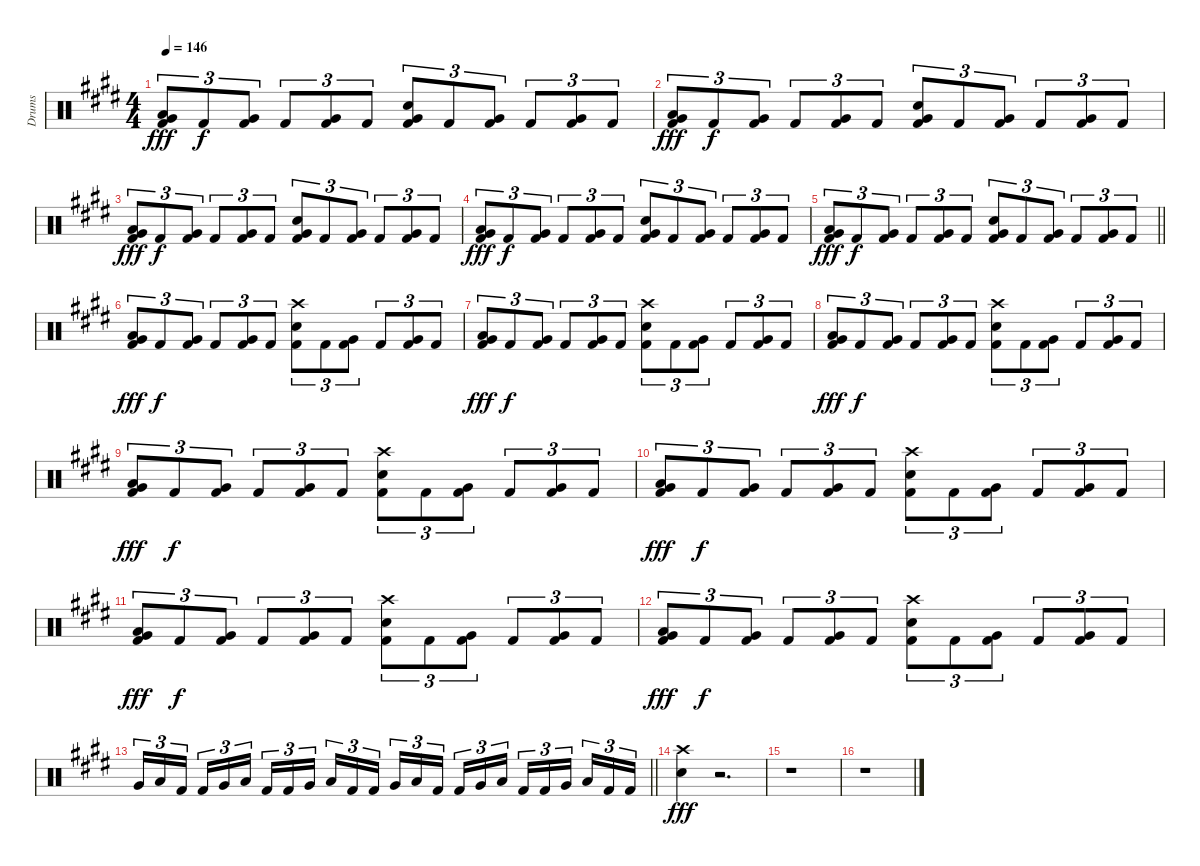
\track ("Drums" "Drums") {instrument percussion}
\staff {score}
\articulation defaults
\ts (4 4)
\tempo 146
\clef neutral
\ks c#minor
("Low Tom (hit)" "Very Low Tom (hit)" "Kick (hit) 2").8{tu (3 2) dy fff} "Kick (hit) 2".8{tu (3 2) dy f} ("Very Low Tom (hit)" "Kick (hit) 2").8{tu (3 2)} "Kick (hit) 2".8{tu (3 2)} ("Very Low Tom (hit)" "Kick (hit) 2").8{tu (3 2)} "Kick (hit) 2".8{tu (3 2)} ("Snare (hit) 2" "Very Low Tom (hit)" "Kick (hit) 2").8{tu (3 2)} "Kick (hit) 2".8{tu (3 2)} ("Very Low Tom (hit)" "Kick (hit) 2").8{tu (3 2)} "Kick (hit) 2".8{tu (3 2)} ("Very Low Tom (hit)" "Kick (hit) 2").8{tu (3 2)} "Kick (hit) 2".8{tu (3 2)} |
("Low Tom (hit)" "Very Low Tom (hit)" "Kick (hit) 2").8{tu (3 2) dy fff} "Kick (hit) 2".8{tu (3 2) dy f} ("Very Low Tom (hit)" "Kick (hit) 2").8{tu (3 2)} "Kick (hit) 2".8{tu (3 2)} ("Very Low Tom (hit)" "Kick (hit) 2").8{tu (3 2)} "Kick (hit) 2".8{tu (3 2)} ("Snare (hit) 2" "Very Low Tom (hit)" "Kick (hit) 2").8{tu (3 2)} "Kick (hit) 2".8{tu (3 2)} ("Very Low Tom (hit)" "Kick (hit) 2").8{tu (3 2)} "Kick (hit) 2".8{tu (3 2)} ("Very Low Tom (hit)" "Kick (hit) 2").8{tu (3 2)} "Kick (hit) 2".8{tu (3 2)} |
("Low Tom (hit)" "Very Low Tom (hit)" "Kick (hit) 2").8{tu (3 2) dy fff} "Kick (hit) 2".8{tu (3 2) dy f} ("Very Low Tom (hit)" "Kick (hit) 2").8{tu (3 2)} "Kick (hit) 2".8{tu (3 2)} ("Very Low Tom (hit)" "Kick (hit) 2").8{tu (3 2)} "Kick (hit) 2".8{tu (3 2)} ("Snare (hit) 2" "Very Low Tom (hit)" "Kick (hit) 2").8{tu (3 2)} "Kick (hit) 2".8{tu (3 2)} ("Very Low Tom (hit)" "Kick (hit) 2").8{tu (3 2)} "Kick (hit) 2".8{tu (3 2)} ("Very Low Tom (hit)" "Kick (hit) 2").8{tu (3 2)} "Kick (hit) 2".8{tu (3 2)} |
("Low Tom (hit)" "Very Low Tom (hit)" "Kick (hit) 2").8{tu (3 2) dy fff} "Kick (hit) 2".8{tu (3 2) dy f} ("Very Low Tom (hit)" "Kick (hit) 2").8{tu (3 2)} "Kick (hit) 2".8{tu (3 2)} ("Very Low Tom (hit)" "Kick (hit) 2").8{tu (3 2)} "Kick (hit) 2".8{tu (3 2)} ("Snare (hit) 2" "Very Low Tom (hit)" "Kick (hit) 2").8{tu (3 2)} "Kick (hit) 2".8{tu (3 2)} ("Very Low Tom (hit)" "Kick (hit) 2").8{tu (3 2)} "Kick (hit) 2".8{tu (3 2)} ("Very Low Tom (hit)" "Kick (hit) 2").8{tu (3 2)} "Kick (hit) 2".8{tu (3 2)} |
\barLineRight lightlight
("Low Tom (hit)" "Very Low Tom (hit)" "Kick (hit) 2").8{tu (3 2) dy fff} "Kick (hit) 2".8{tu (3 2) dy f} ("Very Low Tom (hit)" "Kick (hit) 2").8{tu (3 2)} "Kick (hit) 2".8{tu (3 2)} ("Very Low Tom (hit)" "Kick (hit) 2").8{tu (3 2)} "Kick (hit) 2".8{tu (3 2)} ("Snare (hit) 2" "Very Low Tom (hit)" "Kick (hit) 2").8{tu (3 2)} "Kick (hit) 2".8{tu (3 2)} ("Very Low Tom (hit)" "Kick (hit) 2").8{tu (3 2)} "Kick (hit) 2".8{tu (3 2)} ("Very Low Tom (hit)" "Kick (hit) 2").8{tu (3 2)} "Kick (hit) 2".8{tu (3 2)} |
("Low Tom (hit)" "Very Low Tom (hit)" "Kick (hit) 2").8{tu (3 2) dy fff} "Kick (hit) 2".8{tu (3 2) dy f} ("Very Low Tom (hit)" "Kick (hit) 2").8{tu (3 2)} "Kick (hit) 2".8{tu (3 2)} ("Very Low Tom (hit)" "Kick (hit) 2").8{tu (3 2)} "Kick (hit) 2".8{tu (3 2)} ("Crash high (hit)" "Snare (hit) 2" "Kick (hit) 2").8{tu (3 2)} "Kick (hit) 2".8{tu (3 2)} ("Very Low Tom (hit)" "Kick (hit) 2").8{tu (3 2)} "Kick (hit) 2".8{tu (3 2)} ("Very Low Tom (hit)" "Kick (hit) 2").8{tu (3 2)} "Kick (hit) 2".8{tu (3 2)} |
("Low Tom (hit)" "Very Low Tom (hit)" "Kick (hit) 2").8{tu (3 2) dy fff} "Kick (hit) 2".8{tu (3 2) dy f} ("Very Low Tom (hit)" "Kick (hit) 2").8{tu (3 2)} "Kick (hit) 2".8{tu (3 2)} ("Very Low Tom (hit)" "Kick (hit) 2").8{tu (3 2)} "Kick (hit) 2".8{tu (3 2)} ("Crash high (hit)" "Snare (hit) 2" "Kick (hit) 2").8{tu (3 2)} "Kick (hit) 2".8{tu (3 2)} ("Very Low Tom (hit)" "Kick (hit) 2").8{tu (3 2)} "Kick (hit) 2".8{tu (3 2)} ("Very Low Tom (hit)" "Kick (hit) 2").8{tu (3 2)} "Kick (hit) 2".8{tu (3 2)} |
("Low Tom (hit)" "Very Low Tom (hit)" "Kick (hit) 2").8{tu (3 2) dy fff} "Kick (hit) 2".8{tu (3 2) dy f} ("Very Low Tom (hit)" "Kick (hit) 2").8{tu (3 2)} "Kick (hit) 2".8{tu (3 2)} ("Very Low Tom (hit)" "Kick (hit) 2").8{tu (3 2)} "Kick (hit) 2".8{tu (3 2)} ("Crash high (hit)" "Snare (hit) 2" "Kick (hit) 2").8{tu (3 2)} "Kick (hit) 2".8{tu (3 2)} ("Very Low Tom (hit)" "Kick (hit) 2").8{tu (3 2)} "Kick (hit) 2".8{tu (3 2)} ("Very Low Tom (hit)" "Kick (hit) 2").8{tu (3 2)} "Kick (hit) 2".8{tu (3 2)} |
("Low Tom (hit)" "Very Low Tom (hit)" "Kick (hit) 2").8{tu (3 2) dy fff} "Kick (hit) 2".8{tu (3 2) dy f} ("Very Low Tom (hit)" "Kick (hit) 2").8{tu (3 2)} "Kick (hit) 2".8{tu (3 2)} ("Very Low Tom (hit)" "Kick (hit) 2").8{tu (3 2)} "Kick (hit) 2".8{tu (3 2)} ("Crash high (hit)" "Snare (hit) 2" "Kick (hit) 2").8{tu (3 2)} "Kick (hit) 2".8{tu (3 2)} ("Very Low Tom (hit)" "Kick (hit) 2").8{tu (3 2)} "Kick (hit) 2".8{tu (3 2)} ("Very Low Tom (hit)" "Kick (hit) 2").8{tu (3 2)} "Kick (hit) 2".8{tu (3 2)} |
("Low Tom (hit)" "Very Low Tom (hit)" "Kick (hit) 2").8{tu (3 2) dy fff} "Kick (hit) 2".8{tu (3 2) dy f} ("Very Low Tom (hit)" "Kick (hit) 2").8{tu (3 2)} "Kick (hit) 2".8{tu (3 2)} ("Very Low Tom (hit)" "Kick (hit) 2").8{tu (3 2)} "Kick (hit) 2".8{tu (3 2)} ("Crash high (hit)" "Snare (hit) 2" "Kick (hit) 2").8{tu (3 2)} "Kick (hit) 2".8{tu (3 2)} ("Very Low Tom (hit)" "Kick (hit) 2").8{tu (3 2)} "Kick (hit) 2".8{tu (3 2)} ("Very Low Tom (hit)" "Kick (hit) 2").8{tu (3 2)} "Kick (hit) 2".8{tu (3 2)} |
("Low Tom (hit)" "Very Low Tom (hit)" "Kick (hit) 2").8{tu (3 2) dy fff} "Kick (hit) 2".8{tu (3 2) dy f} ("Very Low Tom (hit)" "Kick (hit) 2").8{tu (3 2)} "Kick (hit) 2".8{tu (3 2)} ("Very Low Tom (hit)" "Kick (hit) 2").8{tu (3 2)} "Kick (hit) 2".8{tu (3 2)} ("Crash high (hit)" "Snare (hit) 2" "Kick (hit) 2").8{tu (3 2)} "Kick (hit) 2".8{tu (3 2)} ("Very Low Tom (hit)" "Kick (hit) 2").8{tu (3 2)} "Kick (hit) 2".8{tu (3 2)} ("Very Low Tom (hit)" "Kick (hit) 2").8{tu (3 2)} "Kick (hit) 2".8{tu (3 2)} |
("Low Tom (hit)" "Very Low Tom (hit)" "Kick (hit) 2").8{tu (3 2) dy fff} "Kick (hit) 2".8{tu (3 2) dy f} ("Very Low Tom (hit)" "Kick (hit) 2").8{tu (3 2)} "Kick (hit) 2".8{tu (3 2)} ("Very Low Tom (hit)" "Kick (hit) 2").8{tu (3 2)} "Kick (hit) 2".8{tu (3 2)} ("Crash high (hit)" "Snare (hit) 2" "Kick (hit) 2").8{tu (3 2)} "Kick (hit) 2".8{tu (3 2)} ("Very Low Tom (hit)" "Kick (hit) 2").8{tu (3 2)} "Kick (hit) 2".8{tu (3 2)} ("Very Low Tom (hit)" "Kick (hit) 2").8{tu (3 2)} "Kick (hit) 2".8{tu (3 2)} |
\barLineRight lightlight "Very Low Tom (hit)".16{tu (3 2)} "Low Tom (hit)".16{tu (3 2)} "Kick (hit) 2".16{tu (3 2)} "Kick (hit) 2".16{tu (3 2)} "Very Low Tom (hit)".16{tu (3 2)} "Low Tom (hit)".16{tu (3 2)} "Kick (hit) 2".16{tu (3 2)} "Kick (hit) 2".16{tu (3 2)} "Very Low Tom (hit)".16{tu (3 2)} "Low Tom (hit)".16{tu (3 2)} "Kick (hit) 2".16{tu (3 2)} "Kick (hit) 2".16{tu (3 2)} "Very Low Tom (hit)".16{tu (3 2)} "Low Tom (hit)".16{tu (3 2)} "Kick (hit) 2".16{tu (3 2)} "Kick (hit) 2".16{tu (3 2)} "Very Low Tom (hit)".16{tu (3 2)} "Low Tom (hit)".16{tu (3 2)} "Kick (hit) 2".16{tu (3 2)} "Kick (hit) 2".16{tu (3 2)} "Very Low Tom (hit)".16{tu (3 2)} "Low Tom (hit)".16{tu (3 2)} "Kick (hit) 2".16{tu (3 2)} "Kick (hit) 2".16{tu (3 2)}
|
("Crash high (hit)" "Snare (hit) 2").4{dy fff} r.2{d} |
r.1 |
r.1
